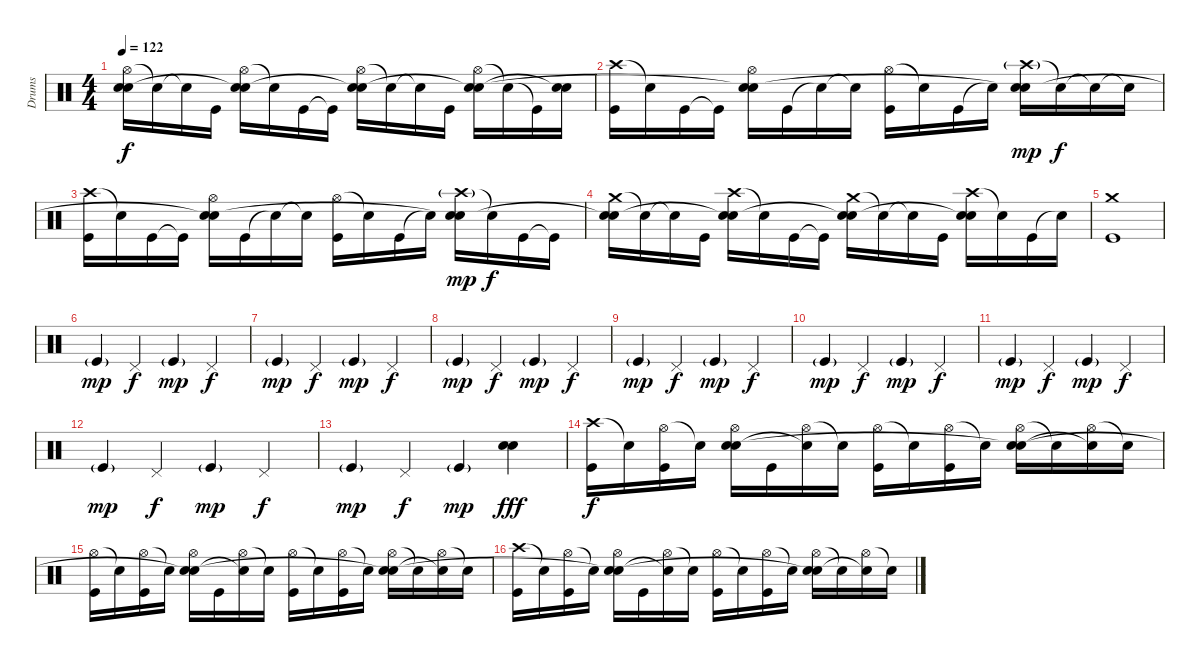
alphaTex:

\track ("Drums" "Drums") {instrument percussion}
\staff {score}
\articulation defaults
\ts (4 4)
\tempo 122
\clef neutral
\ks c
("Hi-Hat (open)" "Electric Snare (hit)" "Snare (hit)"{t}).16{dy f} "Snare (hit)"{t}.16 "Snare (hit)"{t}.16 "Kick (hit)".16 ("Hi-Hat (open)" "Electric Snare (hit)" "Snare (hit)"{t}).16 "Snare (hit)"{t}.16 "Kick (hit)".16 "Kick (hit)"{t}.16 ("Hi-Hat (open)" "Electric Snare (hit)" "Snare (hit)"{t}).16 "Snare (hit)"{t}.16 "Snare (hit)"{t}.16 "Kick (hit)".16 ("Hi-Hat (open)" "Electric Snare (hit)" "Snare (hit)"{t}).16 "Snare (hit)"{t}.16 "Kick (hit)"{t}.16 ("Electric Snare (hit)" "Snare (hit)"{t}).16 |
("Crash high (hit)" "Kick (hit)").16 "Snare (hit)"{t}.16 "Kick (hit)".16 "Kick (hit)"{t}.16 ("Hi-Hat (open)" "Electric Snare (hit)" "Snare (hit)"{t}).16 "Kick (hit)".16 "Snare (hit)"{t}.16 "Snare (hit)"{t}.16 ("Hi-Hat (open)" "Kick (hit)").16 "Snare (hit)"{t}.16 "Kick (hit)".16 "Snare (hit)"{t}.16 ("Crash high (hit)"{g} "Electric Snare (hit)" "Snare (hit)"{t}).16{dy mp} "Snare (hit)"{t}.16{dy f} "Snare (hit)"{t}.16 "Snare (hit)"{t}.16 |
("Crash high (hit)" "Kick (hit)").16 "Snare (hit)"{t}.16 "Kick (hit)".16 "Kick (hit)"{t}.16 ("Hi-Hat (open)" "Electric Snare (hit)" "Snare (hit)"{t}).16 "Kick (hit)".16 "Snare (hit)"{t}.16 "Snare (hit)"{t}.16 ("Hi-Hat (open)" "Kick (hit)").16 "Snare (hit)"{t}.16 "Kick (hit)".16 "Snare (hit)"{t}.16 ("Crash high (hit)"{g} "Electric Snare (hit)" "Snare (hit)"{t}).16{dy mp} "Snare (hit)"{t}.16{dy f} "Kick (hit)".16 "Kick (hit)"{t}.16 |
("Crash medium (hit)" "Electric Snare (hit)" "Snare (hit)"{t}).16 "Snare (hit)"{t}.16 "Snare (hit)"{t}.16 "Kick (hit)".16 ("Crash high (hit)" "Electric Snare (hit)" "Snare (hit)"{t}).16 "Snare (hit)"{t}.16 "Kick (hit)".16 "Kick (hit)"{t}.16 ("Crash medium (hit)" "Electric Snare (hit)" "Snare (hit)"{t}).16 "Snare (hit)"{t}.16 "Snare (hit)"{t}.16 "Kick (hit)".16 ("Crash high (hit)" "Electric Snare (hit)" "Snare (hit)"{t}).16 "Snare (hit)"{t}.16 "Kick (hit)".16 "Snare (hit)"{t}.16 |
("Crash medium (hit)" "Kick (hit)").1 |
"Kick (hit)"{g}.4{dy mp} "Pedal Hi-Hat (hit)".4{dy f} "Kick (hit)"{g}.4{dy mp} "Pedal Hi-Hat (hit)".4{dy f} |
"Kick (hit)"{g}.4{dy mp} "Pedal Hi-Hat (hit)".4{dy f} "Kick (hit)"{g}.4{dy mp} "Pedal Hi-Hat (hit)".4{dy f} |
"Kick (hit)"{g}.4{dy mp} "Pedal Hi-Hat (hit)".4{dy f} "Kick (hit)"{g}.4{dy mp} "Pedal Hi-Hat (hit)".4{dy f} |
"Kick (hit)"{g}.4{dy mp} "Pedal Hi-Hat (hit)".4{dy f} "Kick (hit)"{g}.4{dy mp} "Pedal Hi-Hat (hit)".4{dy f} |
"Kick (hit)"{g}.4{dy mp} "Pedal Hi-Hat (hit)".4{dy f} "Kick (hit)"{g}.4{dy mp} "Pedal Hi-Hat (hit)".4{dy f} |
"Kick (hit)"{g}.4{dy mp} "Pedal Hi-Hat (hit)".4{dy f} "Kick (hit)"{g}.4{dy mp} "Pedal Hi-Hat (hit)".4{dy f} |
"Kick (hit)"{g}.4{dy mp} "Pedal Hi-Hat (hit)".4{dy f} "Kick (hit)"{g}.4{dy mp} "Pedal Hi-Hat (hit)".4{dy f} |
"Kick (hit)"{g}.4{dy mp} "Pedal Hi-Hat (hit)".4{dy f} "Kick (hit)"{g}.4{dy mp} ("Snare (hit) 2" "Electric Snare (hit)").4{dy fff} |
("Crash high (hit)" "Kick (hit)").16{dy f} "Snare (hit)"{t}.16 ("Hi-Hat (open)" "Kick (hit)").16 "Snare (hit)"{t}.16 ("Hi-Hat (open)" "Electric Snare (hit)" "Snare (hit)").16 "Kick (hit)".16 ("Hi-Hat (open)" "Snare (hit)"{t}).16 "Snare (hit)"{t}.16 ("Hi-Hat (open)" "Kick (hit)").16 "Snare (hit)"{t}.16 ("Hi-Hat (open)" "Kick (hit)").16 "Snare (hit)"{t}.16 ("Hi-Hat (open)" "Electric Snare (hit)" "Snare (hit)"{t}).16 "Snare (hit)"{t}.16 ("Hi-Hat (open)" "Snare (hit)"{t}).16 "Snare (hit)"{t}.16 |
("Hi-Hat (open)" "Kick (hit)").16 "Snare (hit)"{t}.16 ("Hi-Hat (open)" "Kick (hit)").16 "Snare (hit)"{t}.16 ("Hi-Hat (open)" "Electric Snare (hit)" "Snare (hit)"{t}).16 "Kick (hit)".16 ("Hi-Hat (open)" "Snare (hit)"{t}).16 "Snare (hit)"{t}.16 ("Hi-Hat (open)" "Kick (hit)").16 "Snare (hit)"{t}.16 ("Hi-Hat (open)" "Kick (hit)").16 "Snare (hit)"{t}.16 ("Hi-Hat (open)" "Electric Snare (hit)" "Snare (hit)"{t}).16 "Snare (hit)"{t}.16 ("Hi-Hat (open)" "Snare (hit)"{t}).16 "Snare (hit)"{t}.16 |
("Crash high (hit)" "Kick (hit)").16 "Snare (hit)"{t}.16 ("Hi-Hat (open)" "Kick (hit)").16 "Snare (hit)"{t}.16 ("Hi-Hat (open)" "Electric Snare (hit)" "Snare (hit)"{t}).16 "Kick (hit)".16 ("Hi-Hat (open)" "Snare (hit)"{t}).16 "Snare (hit)"{t}.16 ("Hi-Hat (open)" "Kick (hit)").16 "Snare (hit)"{t}.16 ("Hi-Hat (open)" "Kick (hit)").16 "Snare (hit)"{t}.16 ("Hi-Hat (open)" "Electric Snare (hit)" "Snare (hit)"{t}).16 "Snare (hit)"{t}.16 ("Hi-Hat (open)" "Snare (hit)"{t}).16 "Snare (hit)"{t}.16
